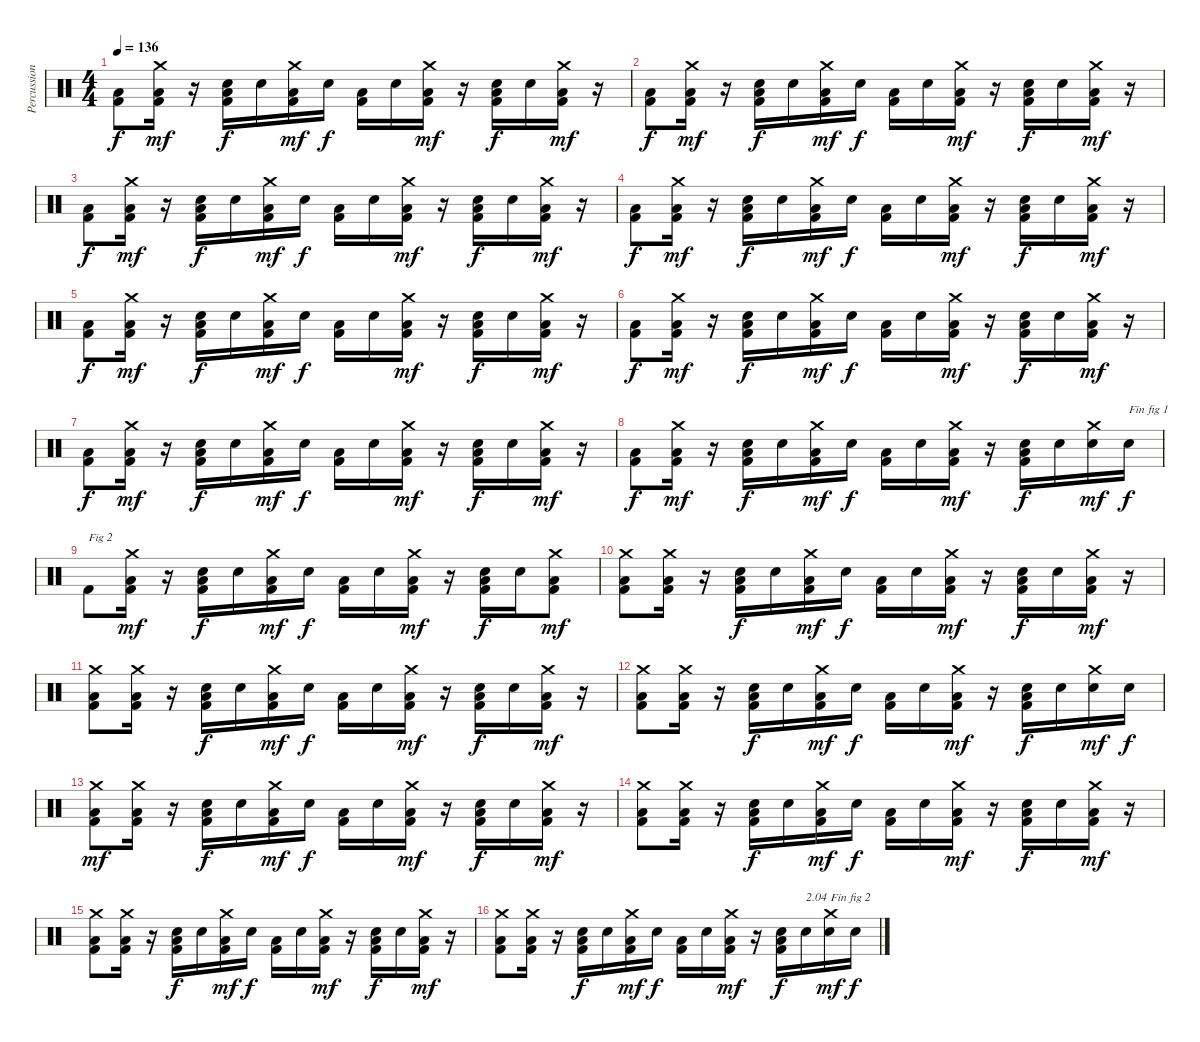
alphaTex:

\track ("Percussions" "Percussion") {instrument percussion}
\staff {score}
\articulation defaults
\ts (4 4)
\tempo 136
\clef neutral
\ks c
("Low Floor Tom (hit)" "Kick (hit) 2").8{dy f} ("Low Floor Tom (hit)" "Kick (hit) 2" "Crash medium (hit)").16{dy mf} r.16 ("Low Floor Tom (hit)" "Kick (hit) 2" "Electric Snare (hit)").16{dy f} "Electric Snare (hit)".16 ("Low Floor Tom (hit)" "Kick (hit) 2" "Crash medium (hit)").16{dy mf} "Electric Snare (hit)".16{dy f} ("Low Floor Tom (hit)" "Kick (hit) 2").16 "Electric Snare (hit)".16 ("Low Floor Tom (hit)" "Kick (hit) 2" "Crash medium (hit)").16{dy mf} r.16 ("Low Floor Tom (hit)" "Kick (hit) 2" "Electric Snare (hit)").16{dy f} "Electric Snare (hit)".16 ("Low Floor Tom (hit)" "Kick (hit) 2" "Crash medium (hit)").16{dy mf} r.16 |
("Low Floor Tom (hit)" "Kick (hit) 2").8{dy f} ("Low Floor Tom (hit)" "Kick (hit) 2" "Crash medium (hit)").16{dy mf} r.16 ("Low Floor Tom (hit)" "Kick (hit) 2" "Electric Snare (hit)").16{dy f} "Electric Snare (hit)".16 ("Low Floor Tom (hit)" "Kick (hit) 2" "Crash medium (hit)").16{dy mf} "Electric Snare (hit)".16{dy f} ("Low Floor Tom (hit)" "Kick (hit) 2").16 "Electric Snare (hit)".16 ("Low Floor Tom (hit)" "Kick (hit) 2" "Crash medium (hit)").16{dy mf} r.16 ("Low Floor Tom (hit)" "Kick (hit) 2" "Electric Snare (hit)").16{dy f} "Electric Snare (hit)".16 ("Low Floor Tom (hit)" "Kick (hit) 2" "Crash medium (hit)").16{dy mf} r.16 |
("Low Floor Tom (hit)" "Kick (hit) 2").8{dy f} ("Low Floor Tom (hit)" "Kick (hit) 2" "Crash medium (hit)").16{dy mf} r.16 ("Low Floor Tom (hit)" "Kick (hit) 2" "Electric Snare (hit)").16{dy f} "Electric Snare (hit)".16 ("Low Floor Tom (hit)" "Kick (hit) 2" "Crash medium (hit)").16{dy mf} "Electric Snare (hit)".16{dy f} ("Low Floor Tom (hit)" "Kick (hit) 2").16 "Electric Snare (hit)".16 ("Low Floor Tom (hit)" "Kick (hit) 2" "Crash medium (hit)").16{dy mf} r.16 ("Low Floor Tom (hit)" "Kick (hit) 2" "Electric Snare (hit)").16{dy f} "Electric Snare (hit)".16 ("Low Floor Tom (hit)" "Kick (hit) 2" "Crash medium (hit)").16{dy mf} r.16 |
("Low Floor Tom (hit)" "Kick (hit) 2").8{dy f} ("Low Floor Tom (hit)" "Kick (hit) 2" "Crash medium (hit)").16{dy mf} r.16 ("Low Floor Tom (hit)" "Kick (hit) 2" "Electric Snare (hit)").16{dy f} "Electric Snare (hit)".16 ("Low Floor Tom (hit)" "Kick (hit) 2" "Crash medium (hit)").16{dy mf} "Electric Snare (hit)".16{dy f} ("Low Floor Tom (hit)" "Kick (hit) 2").16 "Electric Snare (hit)".16 ("Low Floor Tom (hit)" "Kick (hit) 2" "Crash medium (hit)").16{dy mf} r.16 ("Low Floor Tom (hit)" "Kick (hit) 2" "Electric Snare (hit)").16{dy f} "Electric Snare (hit)".16 ("Low Floor Tom (hit)" "Kick (hit) 2" "Crash medium (hit)").16{dy mf} r.16 |
("Low Floor Tom (hit)" "Kick (hit) 2").8{dy f} ("Low Floor Tom (hit)" "Kick (hit) 2" "Crash medium (hit)").16{dy mf} r.16 ("Low Floor Tom (hit)" "Kick (hit) 2" "Electric Snare (hit)").16{dy f} "Electric Snare (hit)".16 ("Low Floor Tom (hit)" "Kick (hit) 2" "Crash medium (hit)").16{dy mf} "Electric Snare (hit)".16{dy f} ("Low Floor Tom (hit)" "Kick (hit) 2").16 "Electric Snare (hit)".16 ("Low Floor Tom (hit)" "Kick (hit) 2" "Crash medium (hit)").16{dy mf} r.16 ("Low Floor Tom (hit)" "Kick (hit) 2" "Electric Snare (hit)").16{dy f} "Electric Snare (hit)".16 ("Low Floor Tom (hit)" "Kick (hit) 2" "Crash medium (hit)").16{dy mf} r.16 |
("Low Floor Tom (hit)" "Kick (hit) 2").8{dy f} ("Low Floor Tom (hit)" "Kick (hit) 2" "Crash medium (hit)").16{dy mf} r.16 ("Low Floor Tom (hit)" "Kick (hit) 2" "Electric Snare (hit)").16{dy f} "Electric Snare (hit)".16 ("Low Floor Tom (hit)" "Kick (hit) 2" "Crash medium (hit)").16{dy mf} "Electric Snare (hit)".16{dy f} ("Low Floor Tom (hit)" "Kick (hit) 2").16 "Electric Snare (hit)".16 ("Low Floor Tom (hit)" "Kick (hit) 2" "Crash medium (hit)").16{dy mf} r.16 ("Low Floor Tom (hit)" "Kick (hit) 2" "Electric Snare (hit)").16{dy f} "Electric Snare (hit)".16 ("Low Floor Tom (hit)" "Kick (hit) 2" "Crash medium (hit)").16{dy mf} r.16 |
("Low Floor Tom (hit)" "Kick (hit) 2").8{dy f} ("Low Floor Tom (hit)" "Kick (hit) 2" "Crash medium (hit)").16{dy mf} r.16 ("Low Floor Tom (hit)" "Kick (hit) 2" "Electric Snare (hit)").16{dy f} "Electric Snare (hit)".16 ("Low Floor Tom (hit)" "Kick (hit) 2" "Crash medium (hit)").16{dy mf} "Electric Snare (hit)".16{dy f} ("Low Floor Tom (hit)" "Kick (hit) 2").16 "Electric Snare (hit)".16 ("Low Floor Tom (hit)" "Kick (hit) 2" "Crash medium (hit)").16{dy mf} r.16 ("Low Floor Tom (hit)" "Kick (hit) 2" "Electric Snare (hit)").16{dy f} "Electric Snare (hit)".16 ("Low Floor Tom (hit)" "Kick (hit) 2" "Crash medium (hit)").16{dy mf} r.16 |
("Low Floor Tom (hit)" "Kick (hit) 2").8{dy f} ("Low Floor Tom (hit)" "Kick (hit) 2" "Crash medium (hit)").16{dy mf} r.16 ("Low Floor Tom (hit)" "Kick (hit) 2" "Electric Snare (hit)").16{dy f} "Electric Snare (hit)".16 ("Low Floor Tom (hit)" "Kick (hit) 2" "Crash medium (hit)").16{dy mf} "Electric Snare (hit)".16{dy f} ("Low Floor Tom (hit)" "Kick (hit) 2").16 "Electric Snare (hit)".16 ("Low Floor Tom (hit)" "Kick (hit) 2" "Crash medium (hit)").16{dy mf} r.16 ("Low Floor Tom (hit)" "Kick (hit) 2" "Electric Snare (hit)").16{dy f} "Electric Snare (hit)".16 ("Electric Snare (hit)" "Crash medium (hit)").16{dy mf} "Electric Snare (hit)".16{txt "Fin fig 1" dy f} |
"Kick (hit) 2".8{txt "Fig 2"} ("Low Floor Tom (hit)" "Kick (hit) 2" "Crash medium (hit)").16{dy mf} r.16 ("Low Floor Tom (hit)" "Kick (hit) 2" "Electric Snare (hit)").16{dy f} "Electric Snare (hit)".16 ("Low Floor Tom (hit)" "Kick (hit) 2" "Crash medium (hit)").16{dy mf} "Electric Snare (hit)".16{dy f} ("Low Floor Tom (hit)" "Kick (hit) 2").16 "Electric Snare (hit)".16 ("Low Floor Tom (hit)" "Kick (hit) 2" "Crash medium (hit)").16{dy mf} r.16 ("Low Floor Tom (hit)" "Kick (hit) 2" "Electric Snare (hit)").16{dy f} "Electric Snare (hit)".16 ("Low Floor Tom (hit)" "Kick (hit) 2" "Crash medium (hit)").8{dy mf} |
("Low Floor Tom (hit)" "Kick (hit) 2" "Crash medium (hit)").8 ("Low Floor Tom (hit)" "Kick (hit) 2" "Crash medium (hit)").16 r.16 ("Low Floor Tom (hit)" "Kick (hit) 2" "Electric Snare (hit)").16{dy f} "Electric Snare (hit)".16 ("Low Floor Tom (hit)" "Kick (hit) 2" "Crash medium (hit)").16{dy mf} "Electric Snare (hit)".16{dy f} ("Low Floor Tom (hit)" "Kick (hit) 2").16 "Electric Snare (hit)".16 ("Low Floor Tom (hit)" "Kick (hit) 2" "Crash medium (hit)").16{dy mf} r.16 ("Low Floor Tom (hit)" "Kick (hit) 2" "Electric Snare (hit)").16{dy f} "Electric Snare (hit)".16 ("Low Floor Tom (hit)" "Kick (hit) 2" "Crash medium (hit)").16{dy mf} r.16 |
("Low Floor Tom (hit)" "Kick (hit) 2" "Crash medium (hit)").8 ("Low Floor Tom (hit)" "Kick (hit) 2" "Crash medium (hit)").16 r.16 ("Low Floor Tom (hit)" "Kick (hit) 2" "Electric Snare (hit)").16{dy f} "Electric Snare (hit)".16 ("Low Floor Tom (hit)" "Kick (hit) 2" "Crash medium (hit)").16{dy mf} "Electric Snare (hit)".16{dy f} ("Low Floor Tom (hit)" "Kick (hit) 2").16 "Electric Snare (hit)".16 ("Low Floor Tom (hit)" "Kick (hit) 2" "Crash medium (hit)").16{dy mf} r.16 ("Low Floor Tom (hit)" "Kick (hit) 2" "Electric Snare (hit)").16{dy f} "Electric Snare (hit)".16 ("Low Floor Tom (hit)" "Kick (hit) 2" "Crash medium (hit)").16{dy mf} r.16 |
("Low Floor Tom (hit)" "Kick (hit) 2" "Crash medium (hit)").8 ("Low Floor Tom (hit)" "Kick (hit) 2" "Crash medium (hit)").16 r.16 ("Low Floor Tom (hit)" "Kick (hit) 2" "Electric Snare (hit)").16{dy f} "Electric Snare (hit)".16 ("Low Floor Tom (hit)" "Kick (hit) 2" "Crash medium (hit)").16{dy mf} "Electric Snare (hit)".16{dy f} ("Low Floor Tom (hit)" "Kick (hit) 2").16 "Electric Snare (hit)".16 ("Low Floor Tom (hit)" "Kick (hit) 2" "Crash medium (hit)").16{dy mf} r.16 ("Low Floor Tom (hit)" "Kick (hit) 2" "Electric Snare (hit)").16{dy f} "Electric Snare (hit)".16 ("Electric Snare (hit)" "Crash medium (hit)").16{dy mf} "Electric Snare (hit)".16{dy f} |
("Low Floor Tom (hit)" "Kick (hit) 2" "Crash medium (hit)").8{dy mf} ("Low Floor Tom (hit)" "Kick (hit) 2" "Crash medium (hit)").16 r.16 ("Low Floor Tom (hit)" "Kick (hit) 2" "Electric Snare (hit)").16{dy f} "Electric Snare (hit)".16 ("Low Floor Tom (hit)" "Kick (hit) 2" "Crash medium (hit)").16{dy mf} "Electric Snare (hit)".16{dy f} ("Low Floor Tom (hit)" "Kick (hit) 2").16 "Electric Snare (hit)".16 ("Low Floor Tom (hit)" "Kick (hit) 2" "Crash medium (hit)").16{dy mf} r.16 ("Low Floor Tom (hit)" "Kick (hit) 2" "Electric Snare (hit)").16{dy f} "Electric Snare (hit)".16 ("Low Floor Tom (hit)" "Kick (hit) 2" "Crash medium (hit)").16{dy mf} r.16 |
("Low Floor Tom (hit)" "Kick (hit) 2" "Crash medium (hit)").8 ("Low Floor Tom (hit)" "Kick (hit) 2" "Crash medium (hit)").16 r.16 ("Low Floor Tom (hit)" "Kick (hit) 2" "Electric Snare (hit)").16{dy f} "Electric Snare (hit)".16 ("Low Floor Tom (hit)" "Kick (hit) 2" "Crash medium (hit)").16{dy mf} "Electric Snare (hit)".16{dy f} ("Low Floor Tom (hit)" "Kick (hit) 2").16 "Electric Snare (hit)".16 ("Low Floor Tom (hit)" "Kick (hit) 2" "Crash medium (hit)").16{dy mf} r.16 ("Low Floor Tom (hit)" "Kick (hit) 2" "Electric Snare (hit)").16{dy f} "Electric Snare (hit)".16 ("Low Floor Tom (hit)" "Kick (hit) 2" "Crash medium (hit)").16{dy mf} r.16 |
("Low Floor Tom (hit)" "Kick (hit) 2" "Crash medium (hit)").8 ("Low Floor Tom (hit)" "Kick (hit) 2" "Crash medium (hit)").16 r.16 ("Low Floor Tom (hit)" "Kick (hit) 2" "Electric Snare (hit)").16{dy f} "Electric Snare (hit)".16 ("Low Floor Tom (hit)" "Kick (hit) 2" "Crash medium (hit)").16{dy mf} "Electric Snare (hit)".16{dy f} ("Low Floor Tom (hit)" "Kick (hit) 2").16 "Electric Snare (hit)".16 ("Low Floor Tom (hit)" "Kick (hit) 2" "Crash medium (hit)").16{dy mf} r.16 ("Low Floor Tom (hit)" "Kick (hit) 2" "Electric Snare (hit)").16{dy f} "Electric Snare (hit)".16 ("Low Floor Tom (hit)" "Kick (hit) 2" "Crash medium (hit)").16{dy mf} r.16 |
("Low Floor Tom (hit)" "Kick (hit) 2" "Crash medium (hit)").8 ("Low Floor Tom (hit)" "Kick (hit) 2" "Crash medium (hit)").16 r.16 ("Low Floor Tom (hit)" "Kick (hit) 2" "Electric Snare (hit)").16{dy f} "Electric Snare (hit)".16 ("Low Floor Tom (hit)" "Kick (hit) 2" "Crash medium (hit)").16{dy mf} "Electric Snare (hit)".16{dy f} ("Low Floor Tom (hit)" "Kick (hit) 2").16 "Electric Snare (hit)".16 ("Low Floor Tom (hit)" "Kick (hit) 2" "Crash medium (hit)").16{dy mf} r.16 ("Low Floor Tom (hit)" "Kick (hit) 2" "Electric Snare (hit)").16{dy f} "Electric Snare (hit)".16{txt "2.04"} ("Electric Snare (hit)" "Crash medium (hit)").16{txt "Fin fig 2" dy mf} "Electric Snare (hit)".16{dy f}
